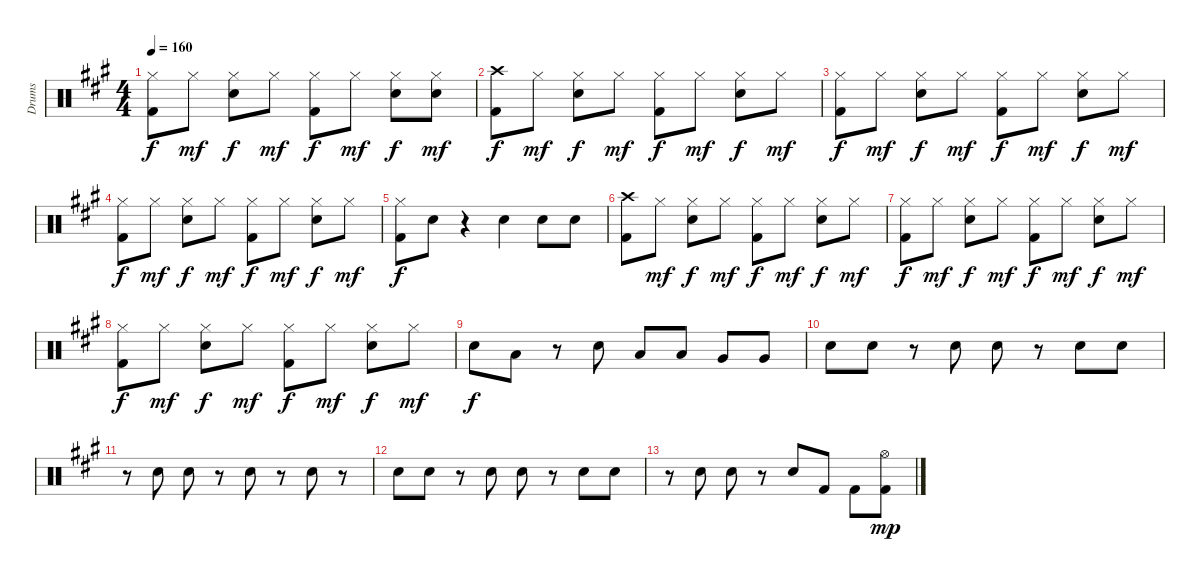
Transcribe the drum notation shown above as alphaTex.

\track ("Drums" "Drums") {instrument percussion}
\staff {score}
\articulation defaults
\ts (4 4)
\tempo 160
\clef neutral
\ks a
("Hi-Hat (closed)" "Kick (hit) 2").8{dy f} "Hi-Hat (closed)".8{dy mf} ("Hi-Hat (closed)" "Electric Snare (hit)").8{dy f} "Hi-Hat (closed)".8{dy mf} ("Hi-Hat (closed)" "Kick (hit) 2").8{dy f} "Hi-Hat (closed)".8{dy mf} ("Hi-Hat (closed)" "Electric Snare (hit)").8{dy f} ("Hi-Hat (closed)" "Electric Snare (hit)").8{dy mf} |
("Crash high (hit)" "Kick (hit) 2").8{dy f} "Hi-Hat (closed)".8{dy mf} ("Hi-Hat (closed)" "Electric Snare (hit)").8{dy f} "Hi-Hat (closed)".8{dy mf} ("Hi-Hat (closed)" "Kick (hit) 2").8{dy f} "Hi-Hat (closed)".8{dy mf} ("Hi-Hat (closed)" "Electric Snare (hit)").8{dy f} "Hi-Hat (closed)".8{dy mf} |
("Hi-Hat (closed)" "Kick (hit) 2").8{dy f} "Hi-Hat (closed)".8{dy mf} ("Hi-Hat (closed)" "Electric Snare (hit)").8{dy f} "Hi-Hat (closed)".8{dy mf} ("Hi-Hat (closed)" "Kick (hit) 2").8{dy f} "Hi-Hat (closed)".8{dy mf} ("Hi-Hat (closed)" "Electric Snare (hit)").8{dy f} "Hi-Hat (closed)".8{dy mf} |
("Hi-Hat (closed)" "Kick (hit) 2").8{dy f} "Hi-Hat (closed)".8{dy mf} ("Hi-Hat (closed)" "Electric Snare (hit)").8{dy f} "Hi-Hat (closed)".8{dy mf} ("Hi-Hat (closed)" "Kick (hit) 2").8{dy f} "Hi-Hat (closed)".8{dy mf} ("Hi-Hat (closed)" "Electric Snare (hit)").8{dy f} "Hi-Hat (closed)".8{dy mf} |
("Hi-Hat (closed)" "Kick (hit) 2").8{dy f} "Electric Snare (hit)".8 r.4 "Electric Snare (hit)".4 "Electric Snare (hit)".8 "Electric Snare (hit)".8 |
("Crash high (hit)" "Kick (hit) 2").8 "Hi-Hat (closed)".8{dy mf} ("Hi-Hat (closed)" "Electric Snare (hit)").8{dy f} "Hi-Hat (closed)".8{dy mf} ("Hi-Hat (closed)" "Kick (hit) 2").8{dy f} "Hi-Hat (closed)".8{dy mf} ("Hi-Hat (closed)" "Electric Snare (hit)").8{dy f} "Hi-Hat (closed)".8{dy mf} |
("Hi-Hat (closed)" "Kick (hit) 2").8{dy f} "Hi-Hat (closed)".8{dy mf} ("Hi-Hat (closed)" "Electric Snare (hit)").8{dy f} "Hi-Hat (closed)".8{dy mf} ("Hi-Hat (closed)" "Kick (hit) 2").8{dy f} "Hi-Hat (closed)".8{dy mf} ("Hi-Hat (closed)" "Electric Snare (hit)").8{dy f} "Hi-Hat (closed)".8{dy mf} |
("Hi-Hat (closed)" "Kick (hit) 2").8{dy f} "Hi-Hat (closed)".8{dy mf} ("Hi-Hat (closed)" "Electric Snare (hit)").8{dy f} "Hi-Hat (closed)".8{dy mf} ("Hi-Hat (closed)" "Kick (hit) 2").8{dy f} "Hi-Hat (closed)".8{dy mf} ("Hi-Hat (closed)" "Electric Snare (hit)").8{dy f} "Hi-Hat (closed)".8{dy mf} |
"Electric Snare (hit)".8{dy f} "Low Tom (hit)".8 r.8 "Electric Snare (hit)".8 "Low Tom (hit)".8 "Low Tom (hit)".8 "Very Low Tom (hit)".8 "Very Low Tom (hit)".8 |
"Electric Snare (hit)".8 "Electric Snare (hit)".8 r.8 "Electric Snare (hit)".8 "Electric Snare (hit)".8 r.8 "Electric Snare (hit)".8 "Electric Snare (hit)".8 |
r.8 "Electric Snare (hit)".8 "Electric Snare (hit)".8 r.8 "Electric Snare (hit)".8 r.8 "Electric Snare (hit)".8 r.8 |
"Electric Snare (hit)".8 "Electric Snare (hit)".8 r.8 "Electric Snare (hit)".8 "Electric Snare (hit)".8 r.8 "Electric Snare (hit)".8 "Electric Snare (hit)".8 |
r.8 "Electric Snare (hit)".8 "Electric Snare (hit)".8 r.8 "Electric Snare (hit)".8 "Kick (hit) 2".8 "Kick (hit) 2".8 ("Hi-Hat (open)" "Kick (hit) 2").8{dy mp}
